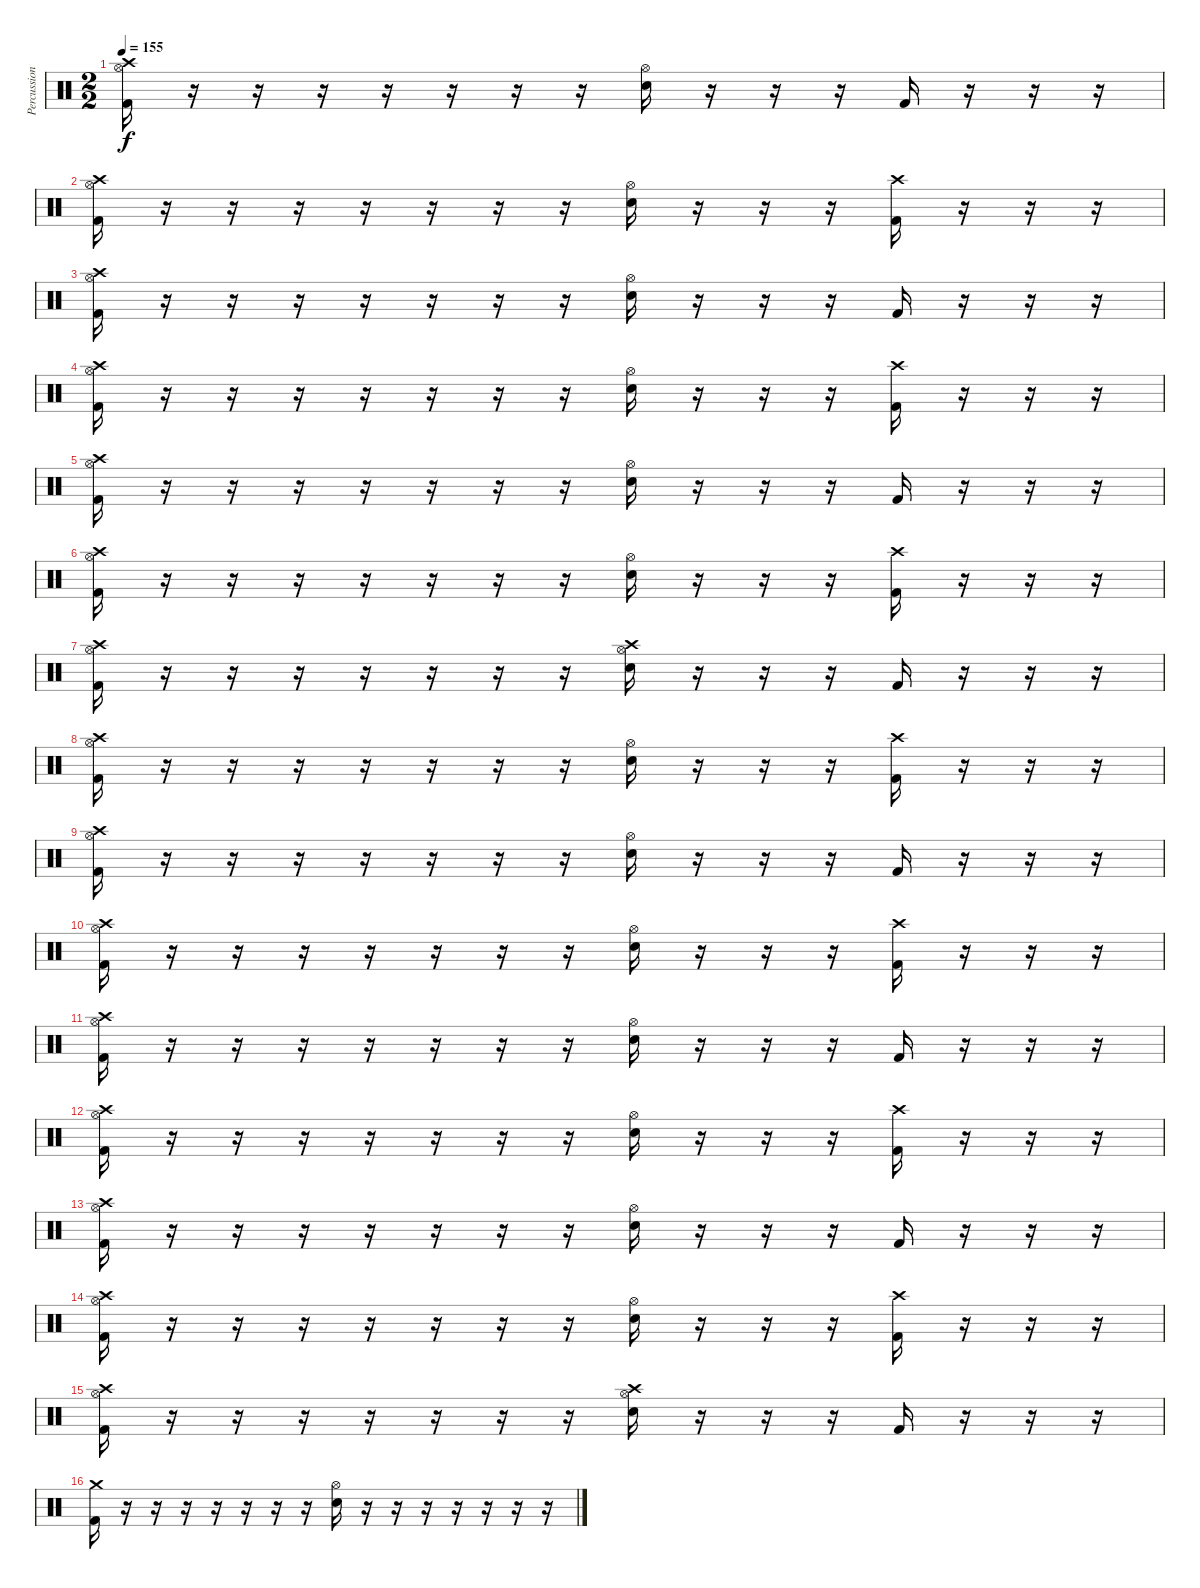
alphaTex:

\track ("Percussion" "Percussion") {instrument percussion}
\staff {score}
\articulation defaults
\ts (2 2)
\tempo 155
\clef neutral
\ks c
("Hi-Hat (open)" "Crash high (hit)" "Kick (hit) 2").16{dy f} r.16 r.16 r.16 r.16 r.16 r.16 r.16 ("Hi-Hat (open)" "Snare (hit) 2").16 r.16 r.16 r.16 "Kick (hit) 2".16 r.16 r.16 r.16 |
("Hi-Hat (open)" "Crash high (hit)" "Kick (hit) 2").16 r.16 r.16 r.16 r.16 r.16 r.16 r.16 ("Hi-Hat (open)" "Snare (hit) 2").16 r.16 r.16 r.16 ("Crash high (hit)" "Kick (hit) 2").16 r.16 r.16 r.16 |
("Hi-Hat (open)" "Crash high (hit)" "Kick (hit) 2").16 r.16 r.16 r.16 r.16 r.16 r.16 r.16 ("Hi-Hat (open)" "Snare (hit) 2").16 r.16 r.16 r.16 "Kick (hit) 2".16 r.16 r.16 r.16 |
("Hi-Hat (open)" "Crash high (hit)" "Kick (hit) 2").16 r.16 r.16 r.16 r.16 r.16 r.16 r.16 ("Hi-Hat (open)" "Snare (hit) 2").16 r.16 r.16 r.16 ("Crash high (hit)" "Kick (hit) 2").16 r.16 r.16 r.16 |
("Hi-Hat (open)" "Crash high (hit)" "Kick (hit) 2").16 r.16 r.16 r.16 r.16 r.16 r.16 r.16 ("Hi-Hat (open)" "Snare (hit) 2").16 r.16 r.16 r.16 "Kick (hit) 2".16 r.16 r.16 r.16 |
("Hi-Hat (open)" "Crash high (hit)" "Kick (hit) 2").16 r.16 r.16 r.16 r.16 r.16 r.16 r.16 ("Hi-Hat (open)" "Snare (hit) 2").16 r.16 r.16 r.16 ("Crash high (hit)" "Kick (hit) 2").16 r.16 r.16 r.16 |
("Hi-Hat (open)" "Crash high (hit)" "Kick (hit) 2").16 r.16 r.16 r.16 r.16 r.16 r.16 r.16 ("Hi-Hat (open)" "Crash high (hit)" "Snare (hit) 2").16 r.16 r.16 r.16 "Kick (hit) 2".16 r.16 r.16 r.16 |
("Hi-Hat (open)" "Crash high (hit)" "Kick (hit) 2").16 r.16 r.16 r.16 r.16 r.16 r.16 r.16 ("Hi-Hat (open)" "Snare (hit) 2").16 r.16 r.16 r.16 ("Crash high (hit)" "Kick (hit) 2").16 r.16 r.16 r.16 |
("Hi-Hat (open)" "Crash high (hit)" "Kick (hit) 2").16 r.16 r.16 r.16 r.16 r.16 r.16 r.16 ("Hi-Hat (open)" "Snare (hit) 2").16 r.16 r.16 r.16 "Kick (hit) 2".16 r.16 r.16 r.16 |
("Hi-Hat (open)" "Crash high (hit)" "Kick (hit) 2").16 r.16 r.16 r.16 r.16 r.16 r.16 r.16 ("Hi-Hat (open)" "Snare (hit) 2").16 r.16 r.16 r.16 ("Crash high (hit)" "Kick (hit) 2").16 r.16 r.16 r.16 |
("Hi-Hat (open)" "Crash high (hit)" "Kick (hit) 2").16 r.16 r.16 r.16 r.16 r.16 r.16 r.16 ("Hi-Hat (open)" "Snare (hit) 2").16 r.16 r.16 r.16 "Kick (hit) 2".16 r.16 r.16 r.16 |
("Hi-Hat (open)" "Crash high (hit)" "Kick (hit) 2").16 r.16 r.16 r.16 r.16 r.16 r.16 r.16 ("Hi-Hat (open)" "Snare (hit) 2").16 r.16 r.16 r.16 ("Crash high (hit)" "Kick (hit) 2").16 r.16 r.16 r.16 |
("Hi-Hat (open)" "Crash high (hit)" "Kick (hit) 2").16 r.16 r.16 r.16 r.16 r.16 r.16 r.16 ("Hi-Hat (open)" "Snare (hit) 2").16 r.16 r.16 r.16 "Kick (hit) 2".16 r.16 r.16 r.16 |
("Hi-Hat (open)" "Crash high (hit)" "Kick (hit) 2").16 r.16 r.16 r.16 r.16 r.16 r.16 r.16 ("Hi-Hat (open)" "Snare (hit) 2").16 r.16 r.16 r.16 ("Crash high (hit)" "Kick (hit) 2").16 r.16 r.16 r.16 |
("Hi-Hat (open)" "Crash high (hit)" "Kick (hit) 2").16 r.16 r.16 r.16 r.16 r.16 r.16 r.16 ("Hi-Hat (open)" "Crash high (hit)" "Snare (hit) 2").16 r.16 r.16 r.16 "Kick (hit) 2".16 r.16 r.16 r.16 |
("Crash medium (hit)" "Kick (hit) 2").16 r.16 r.16 r.16 r.16 r.16 r.16 r.16 ("Hi-Hat (open)" "Snare (hit) 2").16 r.16 r.16 r.16 r.16 r.16 r.16 r.16
